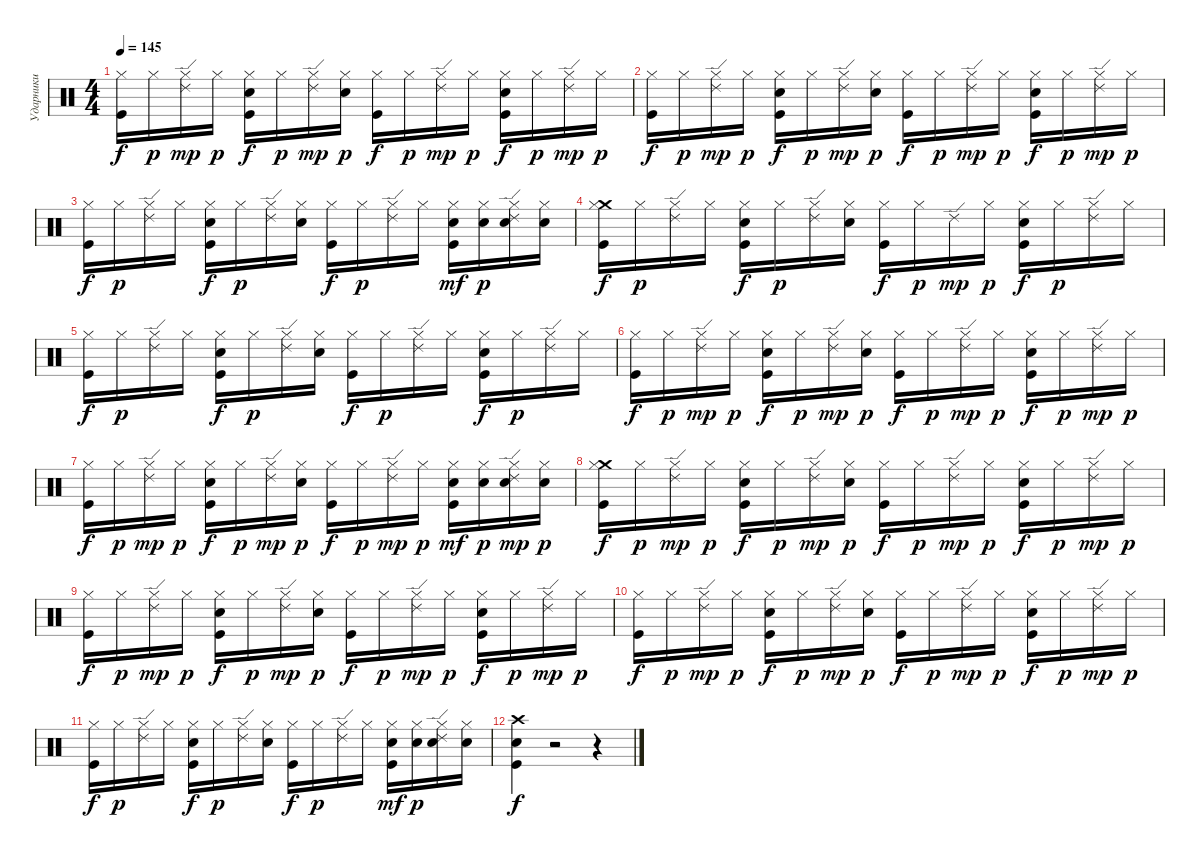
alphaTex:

\track ("Ударники" "Ударники") {instrument percussion}
\staff {score}
\articulation defaults
\ts (4 4)
\tempo 145
\clef neutral
\ks c
("Kick (hit)" "Hi-Hat (closed)").16{dy f} "Hi-Hat (closed)".16{dy p} ("Hi-Hat (closed)" "Ride (edge) 2").16{dy mp} "Hi-Hat (closed)".16{dy p} ("Electric Snare (hit)" "Kick (hit)" "Hi-Hat (closed)").16{dy f} "Hi-Hat (closed)".16{dy p} ("Hi-Hat (closed)" "Ride (edge) 2").16{dy mp} ("Electric Snare (hit)" "Hi-Hat (closed)").16{dy p} ("Kick (hit)" "Hi-Hat (closed)").16{dy f} "Hi-Hat (closed)".16{dy p} ("Hi-Hat (closed)" "Ride (edge) 2").16{dy mp} "Hi-Hat (closed)".16{dy p} ("Electric Snare (hit)" "Kick (hit)" "Hi-Hat (closed)").16{dy f} "Hi-Hat (closed)".16{dy p} ("Hi-Hat (closed)" "Ride (edge) 2").16{dy mp} "Hi-Hat (closed)".16{dy p} |
("Kick (hit)" "Hi-Hat (closed)").16{dy f} "Hi-Hat (closed)".16{dy p} ("Hi-Hat (closed)" "Ride (edge) 2").16{dy mp} "Hi-Hat (closed)".16{dy p} ("Electric Snare (hit)" "Kick (hit)" "Hi-Hat (closed)").16{dy f} "Hi-Hat (closed)".16{dy p} ("Hi-Hat (closed)" "Ride (edge) 2").16{dy mp} ("Electric Snare (hit)" "Hi-Hat (closed)").16{dy p} ("Kick (hit)" "Hi-Hat (closed)").16{dy f} "Hi-Hat (closed)".16{dy p} ("Hi-Hat (closed)" "Ride (edge) 2").16{dy mp} "Hi-Hat (closed)".16{dy p} ("Electric Snare (hit)" "Kick (hit)" "Hi-Hat (closed)").16{dy f} "Hi-Hat (closed)".16{dy p} ("Hi-Hat (closed)" "Ride (edge) 2").16{dy mp} "Hi-Hat (closed)".16{dy p} |
("Kick (hit)" "Hi-Hat (closed)").16{dy f} "Hi-Hat (closed)".16{dy p} ("Ride (edge) 2" "Hi-Hat (closed)").16 "Hi-Hat (closed)".16 ("Electric Snare (hit)" "Kick (hit)" "Hi-Hat (closed)").16{dy f} "Hi-Hat (closed)".16{dy p} ("Ride (edge) 2" "Hi-Hat (closed)").16 ("Electric Snare (hit)" "Hi-Hat (closed)").16 ("Kick (hit)" "Hi-Hat (closed)").16{dy f} "Hi-Hat (closed)".16{dy p} ("Ride (edge) 2" "Hi-Hat (closed)").16 "Hi-Hat (closed)".16 ("Electric Snare (hit)" "Kick (hit)" "Hi-Hat (closed)").16{dy mf} ("Electric Snare (hit)" "Hi-Hat (closed)").16{dy p} ("Electric Snare (hit)" "Ride (edge) 2" "Hi-Hat (closed)").16 ("Electric Snare (hit)" "Hi-Hat (closed)").16 |
("Crash medium (hit)" "Kick (hit)" "Hi-Hat (closed)").16{dy f} "Hi-Hat (closed)".16{dy p} ("Ride (edge) 2" "Hi-Hat (closed)").16 "Hi-Hat (closed)".16 ("Electric Snare (hit)" "Kick (hit)" "Hi-Hat (closed)").16{dy f} "Hi-Hat (closed)".16{dy p} ("Ride (edge) 2" "Hi-Hat (closed)").16 ("Electric Snare (hit)" "Hi-Hat (closed)").16 ("Kick (hit)" "Hi-Hat (closed)").16{dy f} "Hi-Hat (closed)".16{dy p} "Ride (edge) 2".16{dy mp} "Hi-Hat (closed)".16{dy p} ("Electric Snare (hit)" "Kick (hit)" "Hi-Hat (closed)").16{dy f} "Hi-Hat (closed)".16{dy p} ("Ride (edge) 2" "Hi-Hat (closed)").16 "Hi-Hat (closed)".16 |
("Kick (hit)" "Hi-Hat (closed)").16{dy f} "Hi-Hat (closed)".16{dy p} ("Ride (edge) 2" "Hi-Hat (closed)").16 "Hi-Hat (closed)".16 ("Electric Snare (hit)" "Kick (hit)" "Hi-Hat (closed)").16{dy f} "Hi-Hat (closed)".16{dy p} ("Ride (edge) 2" "Hi-Hat (closed)").16 ("Electric Snare (hit)" "Hi-Hat (closed)").16 ("Kick (hit)" "Hi-Hat (closed)").16{dy f} "Hi-Hat (closed)".16{dy p} ("Ride (edge) 2" "Hi-Hat (closed)").16 "Hi-Hat (closed)".16 ("Electric Snare (hit)" "Kick (hit)" "Hi-Hat (closed)").16{dy f} "Hi-Hat (closed)".16{dy p} ("Ride (edge) 2" "Hi-Hat (closed)").16 "Hi-Hat (closed)".16 |
("Kick (hit)" "Hi-Hat (closed)").16{dy f} "Hi-Hat (closed)".16{dy p} ("Hi-Hat (closed)" "Ride (edge) 2").16{dy mp} "Hi-Hat (closed)".16{dy p} ("Electric Snare (hit)" "Kick (hit)" "Hi-Hat (closed)").16{dy f} "Hi-Hat (closed)".16{dy p} ("Hi-Hat (closed)" "Ride (edge) 2").16{dy mp} ("Electric Snare (hit)" "Hi-Hat (closed)").16{dy p} ("Kick (hit)" "Hi-Hat (closed)").16{dy f} "Hi-Hat (closed)".16{dy p} ("Hi-Hat (closed)" "Ride (edge) 2").16{dy mp} "Hi-Hat (closed)".16{dy p} ("Electric Snare (hit)" "Kick (hit)" "Hi-Hat (closed)").16{dy f} "Hi-Hat (closed)".16{dy p} ("Hi-Hat (closed)" "Ride (edge) 2").16{dy mp} "Hi-Hat (closed)".16{dy p} |
("Kick (hit)" "Hi-Hat (closed)").16{dy f} "Hi-Hat (closed)".16{dy p} ("Hi-Hat (closed)" "Ride (edge) 2").16{dy mp} "Hi-Hat (closed)".16{dy p} ("Electric Snare (hit)" "Kick (hit)" "Hi-Hat (closed)").16{dy f} "Hi-Hat (closed)".16{dy p} ("Hi-Hat (closed)" "Ride (edge) 2").16{dy mp} ("Electric Snare (hit)" "Hi-Hat (closed)").16{dy p} ("Kick (hit)" "Hi-Hat (closed)").16{dy f} "Hi-Hat (closed)".16{dy p} ("Hi-Hat (closed)" "Ride (edge) 2").16{dy mp} "Hi-Hat (closed)".16{dy p} ("Electric Snare (hit)" "Kick (hit)" "Hi-Hat (closed)").16{dy mf} ("Electric Snare (hit)" "Hi-Hat (closed)").16{dy p} ("Electric Snare (hit)" "Hi-Hat (closed)" "Ride (edge) 2").16{dy mp} ("Electric Snare (hit)" "Hi-Hat (closed)").16{dy p} |
("Crash medium (hit)" "Kick (hit)" "Hi-Hat (closed)").16{dy f} "Hi-Hat (closed)".16{dy p} ("Hi-Hat (closed)" "Ride (edge) 2").16{dy mp} "Hi-Hat (closed)".16{dy p} ("Electric Snare (hit)" "Kick (hit)" "Hi-Hat (closed)").16{dy f} "Hi-Hat (closed)".16{dy p} ("Hi-Hat (closed)" "Ride (edge) 2").16{dy mp} ("Electric Snare (hit)" "Hi-Hat (closed)").16{dy p} ("Kick (hit)" "Hi-Hat (closed)").16{dy f} "Hi-Hat (closed)".16{dy p} ("Hi-Hat (closed)" "Ride (edge) 2").16{dy mp} "Hi-Hat (closed)".16{dy p} ("Electric Snare (hit)" "Kick (hit)" "Hi-Hat (closed)").16{dy f} "Hi-Hat (closed)".16{dy p} ("Hi-Hat (closed)" "Ride (edge) 2").16{dy mp} "Hi-Hat (closed)".16{dy p} |
("Kick (hit)" "Hi-Hat (closed)").16{dy f} "Hi-Hat (closed)".16{dy p} ("Hi-Hat (closed)" "Ride (edge) 2").16{dy mp} "Hi-Hat (closed)".16{dy p} ("Electric Snare (hit)" "Kick (hit)" "Hi-Hat (closed)").16{dy f} "Hi-Hat (closed)".16{dy p} ("Hi-Hat (closed)" "Ride (edge) 2").16{dy mp} ("Electric Snare (hit)" "Hi-Hat (closed)").16{dy p} ("Kick (hit)" "Hi-Hat (closed)").16{dy f} "Hi-Hat (closed)".16{dy p} ("Hi-Hat (closed)" "Ride (edge) 2").16{dy mp} "Hi-Hat (closed)".16{dy p} ("Electric Snare (hit)" "Kick (hit)" "Hi-Hat (closed)").16{dy f} "Hi-Hat (closed)".16{dy p} ("Hi-Hat (closed)" "Ride (edge) 2").16{dy mp} "Hi-Hat (closed)".16{dy p} |
("Kick (hit)" "Hi-Hat (closed)").16{dy f} "Hi-Hat (closed)".16{dy p} ("Hi-Hat (closed)" "Ride (edge) 2").16{dy mp} "Hi-Hat (closed)".16{dy p} ("Electric Snare (hit)" "Kick (hit)" "Hi-Hat (closed)").16{dy f} "Hi-Hat (closed)".16{dy p} ("Hi-Hat (closed)" "Ride (edge) 2").16{dy mp} ("Electric Snare (hit)" "Hi-Hat (closed)").16{dy p} ("Kick (hit)" "Hi-Hat (closed)").16{dy f} "Hi-Hat (closed)".16{dy p} ("Hi-Hat (closed)" "Ride (edge) 2").16{dy mp} "Hi-Hat (closed)".16{dy p} ("Electric Snare (hit)" "Kick (hit)" "Hi-Hat (closed)").16{dy f} "Hi-Hat (closed)".16{dy p} ("Hi-Hat (closed)" "Ride (edge) 2").16{dy mp} "Hi-Hat (closed)".16{dy p} |
("Kick (hit)" "Hi-Hat (closed)").16{dy f} "Hi-Hat (closed)".16{dy p} ("Ride (edge) 2" "Hi-Hat (closed)").16 "Hi-Hat (closed)".16 ("Electric Snare (hit)" "Kick (hit)" "Hi-Hat (closed)").16{dy f} "Hi-Hat (closed)".16{dy p} ("Ride (edge) 2" "Hi-Hat (closed)").16 ("Electric Snare (hit)" "Hi-Hat (closed)").16 ("Kick (hit)" "Hi-Hat (closed)").16{dy f} "Hi-Hat (closed)".16{dy p} ("Ride (edge) 2" "Hi-Hat (closed)").16 "Hi-Hat (closed)".16 ("Electric Snare (hit)" "Kick (hit)" "Hi-Hat (closed)").16{dy mf} ("Electric Snare (hit)" "Hi-Hat (closed)").16{dy p} ("Electric Snare (hit)" "Ride (edge) 2" "Hi-Hat (closed)").16 ("Electric Snare (hit)" "Hi-Hat (closed)").16 |
("Electric Snare (hit)" "Kick (hit)" "Crash high (hit)").4{dy f} r.2 r.4
